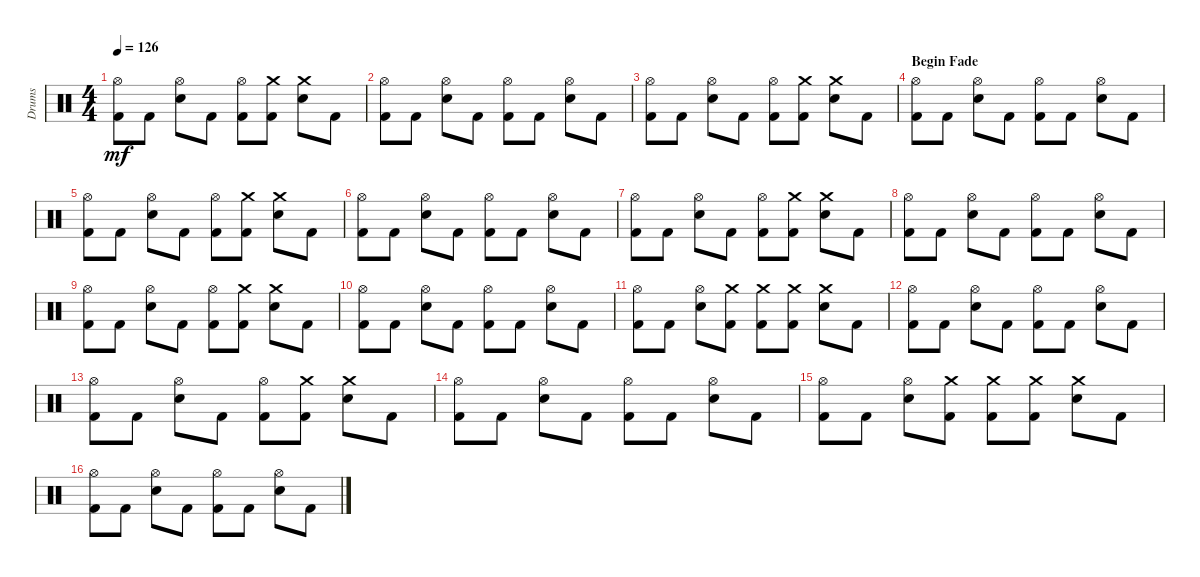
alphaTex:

\track ("Drums" "Drums") {instrument percussion}
\staff {score}
\articulation defaults
\ts (4 4)
\tempo 126
\clef neutral
\ks c
("Hi-Hat (open)" "Kick (hit) 2").8{dy mf} "Kick (hit) 2".8 ("Hi-Hat (open)" "Electric Snare (hit)").8 "Kick (hit) 2".8 ("Hi-Hat (open)" "Kick (hit) 2").8 ("Crash medium (hit)" "Kick (hit) 2").8 ("Crash medium (hit)" "Electric Snare (hit)").8 "Kick (hit) 2".8 |
("Hi-Hat (open)" "Kick (hit) 2").8 "Kick (hit) 2".8 ("Hi-Hat (open)" "Electric Snare (hit)").8 "Kick (hit) 2".8 ("Hi-Hat (open)" "Kick (hit) 2").8 "Kick (hit) 2".8 ("Hi-Hat (open)" "Electric Snare (hit)").8 "Kick (hit) 2".8 |
("Hi-Hat (open)" "Kick (hit) 2").8 "Kick (hit) 2".8 ("Hi-Hat (open)" "Electric Snare (hit)").8 "Kick (hit) 2".8 ("Hi-Hat (open)" "Kick (hit) 2").8 ("Crash medium (hit)" "Kick (hit) 2").8 ("Crash medium (hit)" "Electric Snare (hit)").8 "Kick (hit) 2".8 |
\section ("" "Begin Fade")
("Hi-Hat (open)" "Kick (hit) 2").8 "Kick (hit) 2".8 ("Hi-Hat (open)" "Electric Snare (hit)").8 "Kick (hit) 2".8 ("Hi-Hat (open)" "Kick (hit) 2").8 "Kick (hit) 2".8 ("Hi-Hat (open)" "Electric Snare (hit)").8 "Kick (hit) 2".8 |
("Hi-Hat (open)" "Kick (hit) 2").8 "Kick (hit) 2".8 ("Hi-Hat (open)" "Electric Snare (hit)").8 "Kick (hit) 2".8 ("Hi-Hat (open)" "Kick (hit) 2").8 ("Crash medium (hit)" "Kick (hit) 2").8 ("Crash medium (hit)" "Electric Snare (hit)").8 "Kick (hit) 2".8 |
("Hi-Hat (open)" "Kick (hit) 2").8 "Kick (hit) 2".8 ("Hi-Hat (open)" "Electric Snare (hit)").8 "Kick (hit) 2".8 ("Hi-Hat (open)" "Kick (hit) 2").8 "Kick (hit) 2".8 ("Hi-Hat (open)" "Electric Snare (hit)").8 "Kick (hit) 2".8 |
("Hi-Hat (open)" "Kick (hit) 2").8 "Kick (hit) 2".8 ("Hi-Hat (open)" "Electric Snare (hit)").8 "Kick (hit) 2".8 ("Hi-Hat (open)" "Kick (hit) 2").8 ("Crash medium (hit)" "Kick (hit) 2").8 ("Crash medium (hit)" "Electric Snare (hit)").8 "Kick (hit) 2".8 |
("Hi-Hat (open)" "Kick (hit) 2").8 "Kick (hit) 2".8 ("Hi-Hat (open)" "Electric Snare (hit)").8 "Kick (hit) 2".8 ("Hi-Hat (open)" "Kick (hit) 2").8 "Kick (hit) 2".8 ("Hi-Hat (open)" "Electric Snare (hit)").8 "Kick (hit) 2".8 |
("Hi-Hat (open)" "Kick (hit) 2").8 "Kick (hit) 2".8 ("Hi-Hat (open)" "Electric Snare (hit)").8 "Kick (hit) 2".8 ("Hi-Hat (open)" "Kick (hit) 2").8 ("Crash medium (hit)" "Kick (hit) 2").8 ("Crash medium (hit)" "Electric Snare (hit)").8 "Kick (hit) 2".8 |
("Hi-Hat (open)" "Kick (hit) 2").8 "Kick (hit) 2".8 ("Hi-Hat (open)" "Electric Snare (hit)").8 "Kick (hit) 2".8 ("Hi-Hat (open)" "Kick (hit) 2").8 "Kick (hit) 2".8 ("Hi-Hat (open)" "Electric Snare (hit)").8 "Kick (hit) 2".8 |
("Hi-Hat (open)" "Kick (hit) 2").8 "Kick (hit) 2".8 ("Hi-Hat (open)" "Electric Snare (hit)").8 ("Crash medium (hit)" "Kick (hit) 2").8 ("Crash medium (hit)" "Kick (hit) 2").8 ("Crash medium (hit)" "Kick (hit) 2").8 ("Crash medium (hit)" "Electric Snare (hit)").8 "Kick (hit) 2".8 |
("Hi-Hat (open)" "Kick (hit) 2").8 "Kick (hit) 2".8 ("Hi-Hat (open)" "Electric Snare (hit)").8 "Kick (hit) 2".8 ("Hi-Hat (open)" "Kick (hit) 2").8 "Kick (hit) 2".8 ("Hi-Hat (open)" "Electric Snare (hit)").8 "Kick (hit) 2".8 |
("Hi-Hat (open)" "Kick (hit) 2").8 "Kick (hit) 2".8 ("Hi-Hat (open)" "Electric Snare (hit)").8 "Kick (hit) 2".8 ("Hi-Hat (open)" "Kick (hit) 2").8 ("Crash medium (hit)" "Kick (hit) 2").8 ("Crash medium (hit)" "Electric Snare (hit)").8 "Kick (hit) 2".8 |
("Hi-Hat (open)" "Kick (hit) 2").8 "Kick (hit) 2".8 ("Hi-Hat (open)" "Electric Snare (hit)").8 "Kick (hit) 2".8 ("Hi-Hat (open)" "Kick (hit) 2").8 "Kick (hit) 2".8 ("Hi-Hat (open)" "Electric Snare (hit)").8 "Kick (hit) 2".8 |
("Hi-Hat (open)" "Kick (hit) 2").8 "Kick (hit) 2".8 ("Hi-Hat (open)" "Electric Snare (hit)").8 ("Crash medium (hit)" "Kick (hit) 2").8 ("Crash medium (hit)" "Kick (hit) 2").8 ("Crash medium (hit)" "Kick (hit) 2").8 ("Crash medium (hit)" "Electric Snare (hit)").8 "Kick (hit) 2".8 |
("Hi-Hat (open)" "Kick (hit) 2").8 "Kick (hit) 2".8 ("Hi-Hat (open)" "Electric Snare (hit)").8 "Kick (hit) 2".8 ("Hi-Hat (open)" "Kick (hit) 2").8 "Kick (hit) 2".8 ("Hi-Hat (open)" "Electric Snare (hit)").8 "Kick (hit) 2".8
